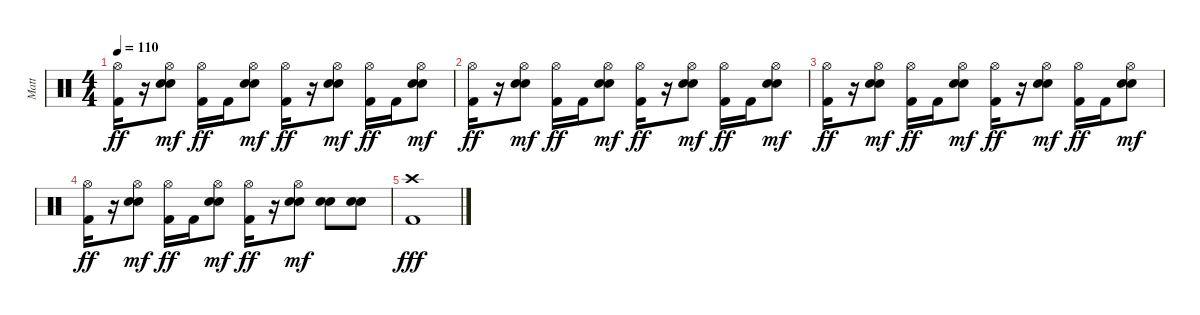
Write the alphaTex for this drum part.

\track ("Matt" "Matt") {instrument percussion}
\staff {score}
\articulation defaults
\ts (4 4)
\tempo 110
\clef neutral
\ks c
("Hi-Hat (open)" "Kick (hit) 2").16{dy ff} r.16 ("Hi-Hat (open)" "Electric Snare (hit)" "Snare (hit) 2").8{dy mf} ("Hi-Hat (open)" "Kick (hit) 2").16{dy ff} "Kick (hit) 2".16 ("Hi-Hat (open)" "Electric Snare (hit)" "Snare (hit) 2").8{dy mf} ("Hi-Hat (open)" "Kick (hit) 2").16{dy ff} r.16 ("Hi-Hat (open)" "Electric Snare (hit)" "Snare (hit) 2").8{dy mf} ("Hi-Hat (open)" "Kick (hit) 2").16{dy ff} "Kick (hit) 2".16 ("Hi-Hat (open)" "Electric Snare (hit)" "Snare (hit) 2").8{dy mf} |
("Hi-Hat (open)" "Kick (hit) 2").16{dy ff} r.16 ("Hi-Hat (open)" "Electric Snare (hit)" "Snare (hit) 2").8{dy mf} ("Hi-Hat (open)" "Kick (hit) 2").16{dy ff} "Kick (hit) 2".16 ("Hi-Hat (open)" "Electric Snare (hit)" "Snare (hit) 2").8{dy mf} ("Hi-Hat (open)" "Kick (hit) 2").16{dy ff} r.16 ("Hi-Hat (open)" "Electric Snare (hit)" "Snare (hit) 2").8{dy mf} ("Hi-Hat (open)" "Kick (hit) 2").16{dy ff} "Kick (hit) 2".16 ("Hi-Hat (open)" "Electric Snare (hit)" "Snare (hit) 2").8{dy mf} |
("Hi-Hat (open)" "Kick (hit) 2").16{dy ff} r.16 ("Hi-Hat (open)" "Electric Snare (hit)" "Snare (hit) 2").8{dy mf} ("Hi-Hat (open)" "Kick (hit) 2").16{dy ff} "Kick (hit) 2".16 ("Hi-Hat (open)" "Electric Snare (hit)" "Snare (hit) 2").8{dy mf} ("Hi-Hat (open)" "Kick (hit) 2").16{dy ff} r.16 ("Hi-Hat (open)" "Electric Snare (hit)" "Snare (hit) 2").8{dy mf} ("Hi-Hat (open)" "Kick (hit) 2").16{dy ff} "Kick (hit) 2".16 ("Hi-Hat (open)" "Electric Snare (hit)" "Snare (hit) 2").8{dy mf} |
("Hi-Hat (open)" "Kick (hit) 2").16{dy ff} r.16 ("Hi-Hat (open)" "Electric Snare (hit)" "Snare (hit) 2").8{dy mf} ("Hi-Hat (open)" "Kick (hit) 2").16{dy ff} "Kick (hit) 2".16 ("Hi-Hat (open)" "Electric Snare (hit)" "Snare (hit) 2").8{dy mf} ("Hi-Hat (open)" "Kick (hit) 2").16{dy ff} r.16 ("Hi-Hat (open)" "Electric Snare (hit)" "Snare (hit) 2").8{dy mf} ("Electric Snare (hit)" "Snare (hit) 2").8 ("Electric Snare (hit)" "Snare (hit) 2").8 |
("Crash high (hit)" "Kick (hit) 2").1{dy fff}
